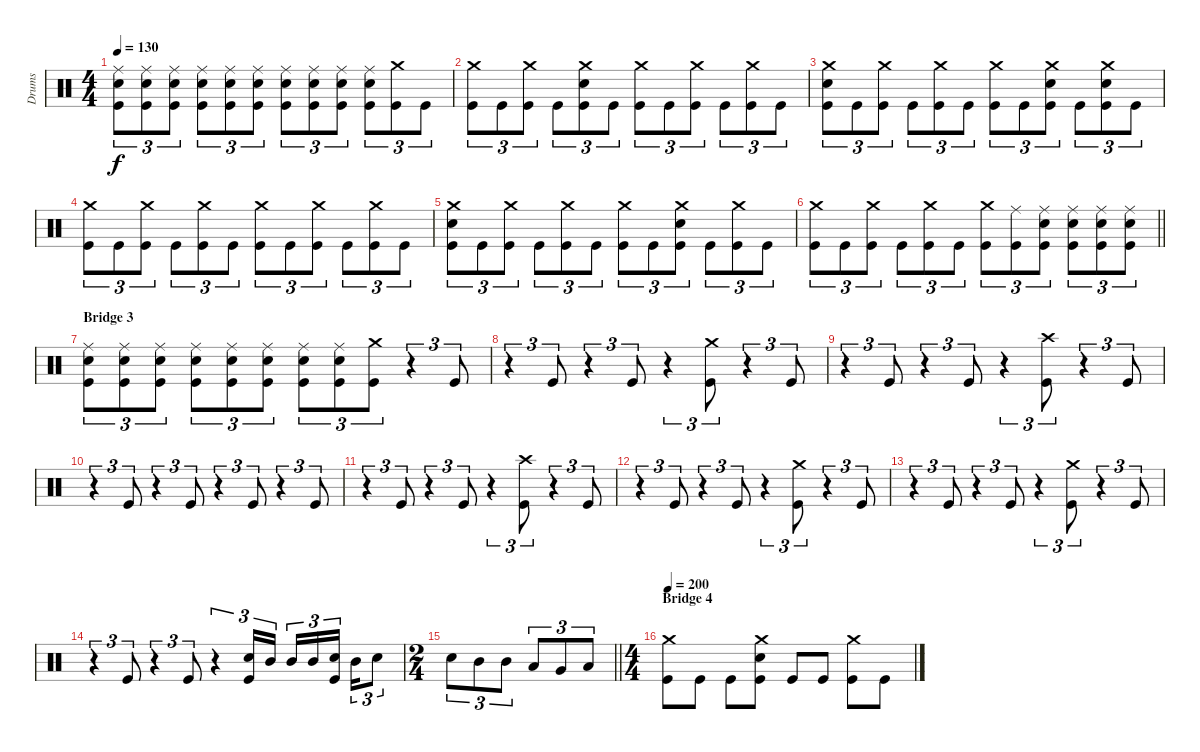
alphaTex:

\track ("Drums" "Drums") {instrument percussion}
\staff {score}
\articulation defaults
\ts (4 4)
\tempo 130
\clef neutral
\ks c
("Ride (middle)" "Snare (hit) 2" "Kick (hit)").8{tu (3 2) dy f} ("Ride (middle)" "Snare (hit) 2" "Kick (hit)").8{tu (3 2)} ("Ride (middle)" "Snare (hit) 2" "Kick (hit)").8{tu (3 2)} ("Ride (middle)" "Snare (hit) 2" "Kick (hit)").8{tu (3 2)} ("Ride (middle)" "Snare (hit) 2" "Kick (hit)").8{tu (3 2)} ("Ride (middle)" "Snare (hit) 2" "Kick (hit)").8{tu (3 2)} ("Ride (middle)" "Snare (hit) 2" "Kick (hit)").8{tu (3 2)} ("Ride (middle)" "Snare (hit) 2" "Kick (hit)").8{tu (3 2)} ("Ride (middle)" "Snare (hit) 2" "Kick (hit)").8{tu (3 2)} ("Ride (middle)" "Snare (hit) 2" "Kick (hit)").8{tu (3 2)} ("Crash medium (hit)" "Kick (hit)").8{tu (3 2)} "Kick (hit)".8{tu (3 2)} |
("Crash medium (hit)" "Kick (hit)").8{tu (3 2)} "Kick (hit)".8{tu (3 2)} ("Crash medium (hit)" "Kick (hit)").8{tu (3 2)} "Kick (hit)".8{tu (3 2)} ("Crash medium (hit)" "Snare (hit) 2" "Kick (hit)").8{tu (3 2)} "Kick (hit)".8{tu (3 2)} ("Crash medium (hit)" "Kick (hit)").8{tu (3 2)} "Kick (hit)".8{tu (3 2)} ("Crash medium (hit)" "Kick (hit)").8{tu (3 2)} "Kick (hit)".8{tu (3 2)} ("Crash medium (hit)" "Kick (hit)").8{tu (3 2)} "Kick (hit)".8{tu (3 2)} |
("Crash medium (hit)" "Snare (hit) 2" "Kick (hit)").8{tu (3 2)} "Kick (hit)".8{tu (3 2)} ("Crash medium (hit)" "Kick (hit)").8{tu (3 2)} "Kick (hit)".8{tu (3 2)} ("Crash medium (hit)" "Kick (hit)").8{tu (3 2)} "Kick (hit)".8{tu (3 2)} ("Crash medium (hit)" "Kick (hit)").8{tu (3 2)} "Kick (hit)".8{tu (3 2)} ("Crash medium (hit)" "Snare (hit) 2" "Kick (hit)").8{tu (3 2)} "Kick (hit)".8{tu (3 2)} ("Crash medium (hit)" "Snare (hit) 2" "Kick (hit)").8{tu (3 2)} "Kick (hit)".8{tu (3 2)} |
("Crash medium (hit)" "Kick (hit)").8{tu (3 2)} "Kick (hit)".8{tu (3 2)} ("Crash medium (hit)" "Kick (hit)").8{tu (3 2)} "Kick (hit)".8{tu (3 2)} ("Crash medium (hit)" "Kick (hit)").8{tu (3 2)} "Kick (hit)".8{tu (3 2)} ("Crash medium (hit)" "Kick (hit)").8{tu (3 2)} "Kick (hit)".8{tu (3 2)} ("Crash medium (hit)" "Kick (hit)").8{tu (3 2)} "Kick (hit)".8{tu (3 2)} ("Crash medium (hit)" "Kick (hit)").8{tu (3 2)} "Kick (hit)".8{tu (3 2)} |
("Crash medium (hit)" "Snare (hit) 2" "Kick (hit)").8{tu (3 2)} "Kick (hit)".8{tu (3 2)} ("Crash medium (hit)" "Kick (hit)").8{tu (3 2)} "Kick (hit)".8{tu (3 2)} ("Crash medium (hit)" "Kick (hit)").8{tu (3 2)} "Kick (hit)".8{tu (3 2)} ("Crash medium (hit)" "Kick (hit)").8{tu (3 2)} "Kick (hit)".8{tu (3 2)} ("Crash medium (hit)" "Snare (hit) 2" "Kick (hit)").8{tu (3 2)} "Kick (hit)".8{tu (3 2)} ("Crash medium (hit)" "Kick (hit)").8{tu (3 2)} "Kick (hit)".8{tu (3 2)} |
\barLineRight lightlight
("Crash medium (hit)" "Kick (hit)").8{tu (3 2)} "Kick (hit)".8{tu (3 2)} ("Crash medium (hit)" "Kick (hit)").8{tu (3 2)} "Kick (hit)".8{tu (3 2)} ("Crash medium (hit)" "Kick (hit)").8{tu (3 2)} "Kick (hit)".8{tu (3 2)} ("Crash medium (hit)" "Kick (hit)").8{tu (3 2)} ("Ride (middle)" "Kick (hit)").8{tu (3 2)} ("Ride (middle)" "Snare (hit) 2" "Kick (hit)").8{tu (3 2)} ("Ride (middle)" "Snare (hit) 2" "Kick (hit)").8{tu (3 2)} ("Ride (middle)" "Snare (hit) 2" "Kick (hit)").8{tu (3 2)} ("Ride (middle)" "Snare (hit) 2" "Kick (hit)").8{tu (3 2)} |
\section ("" "Bridge 3")
("Ride (middle)" "Snare (hit) 2" "Kick (hit)").8{tu (3 2)} ("Ride (middle)" "Snare (hit) 2" "Kick (hit)").8{tu (3 2)} ("Ride (middle)" "Snare (hit) 2" "Kick (hit)").8{tu (3 2)} ("Ride (middle)" "Snare (hit) 2" "Kick (hit)").8{tu (3 2)} ("Ride (middle)" "Snare (hit) 2" "Kick (hit)").8{tu (3 2)} ("Ride (middle)" "Snare (hit) 2" "Kick (hit)").8{tu (3 2)} ("Ride (middle)" "Snare (hit) 2" "Kick (hit)").8{tu (3 2)} ("Ride (middle)" "Snare (hit) 2" "Kick (hit)").8{tu (3 2)} ("Crash medium (hit)" "Kick (hit)").8{tu (3 2)} r.4{tu (3 2)} "Kick (hit)".8{tu (3 2)} |
r.4{tu (3 2)} "Kick (hit)".8{tu (3 2)} r.4{tu (3 2)} "Kick (hit)".8{tu (3 2)} r.4{tu (3 2)} ("Crash medium (hit)" "Kick (hit)").8{tu (3 2)} r.4{tu (3 2)} "Kick (hit)".8{tu (3 2)} |
r.4{tu (3 2)} "Kick (hit)".8{tu (3 2)} r.4{tu (3 2)} "Kick (hit)".8{tu (3 2)} r.4{tu (3 2)} ("Crash high (hit)" "Kick (hit)").8{tu (3 2)} r.4{tu (3 2)} "Kick (hit)".8{tu (3 2)} |
r.4{tu (3 2)} "Kick (hit)".8{tu (3 2)} r.4{tu (3 2)} "Kick (hit)".8{tu (3 2)} r.4{tu (3 2)} "Kick (hit)".8{tu (3 2)} r.4{tu (3 2)} "Kick (hit)".8{tu (3 2)} |
r.4{tu (3 2)} "Kick (hit)".8{tu (3 2)} r.4{tu (3 2)} "Kick (hit)".8{tu (3 2)} r.4{tu (3 2)} ("Crash high (hit)" "Kick (hit)").8{tu (3 2)} r.4{tu (3 2)} "Kick (hit)".8{tu (3 2)} |
r.4{tu (3 2)} "Kick (hit)".8{tu (3 2)} r.4{tu (3 2)} "Kick (hit)".8{tu (3 2)} r.4{tu (3 2)} ("Crash medium (hit)" "Kick (hit)").8{tu (3 2)} r.4{tu (3 2)} "Kick (hit)".8{tu (3 2)} |
r.4{tu (3 2)} "Kick (hit)".8{tu (3 2)} r.4{tu (3 2)} "Kick (hit)".8{tu (3 2)} r.4{tu (3 2)} ("Crash medium (hit)" "Kick (hit)").8{tu (3 2)} r.4{tu (3 2)} "Kick (hit)".8{tu (3 2)} |
r.4{tu (3 2)} "Kick (hit)".8{tu (3 2)} r.4{tu (3 2)} "Kick (hit)".8{tu (3 2)} r.4{tu (3 2)} ("Snare (hit) 2" "Kick (hit)").16{tu (3 2)} "Mid Tom (hit)".16{tu (3 2)} "Mid Tom (hit)".16{tu (3 2)} "Mid Tom (hit)".16{tu (3 2)} ("Snare (hit) 2" "Kick (hit)").16{tu (3 2) beam splitsecondary} "Mid Tom (hit)".16{tu (3 2)} "Snare (hit) 2".8{tu (3 2)} |
\ts (2 4)
\barLineRight lightlight "Snare (hit) 2".8{tu (3 2)} "Mid Tom (hit)".8{tu (3 2)} "Mid Tom (hit)".8{tu (3 2)} "Low Tom (hit)".8{tu (3 2)} "Very Low Tom (hit)".8{tu (3 2)} "Low Floor Tom (hit)".8{tu (3 2)}
|
\ts (4 4)
\section ("" "Bridge 4")
\tempo 200
("Crash medium (hit)" "Kick (hit)").8 "Kick (hit)".8 "Kick (hit)".8 ("Crash medium (hit)" "Snare (hit) 2" "Kick (hit)").8 "Kick (hit)".8 "Kick (hit)".8 ("Crash medium (hit)" "Kick (hit)").8 "Kick (hit)".8
